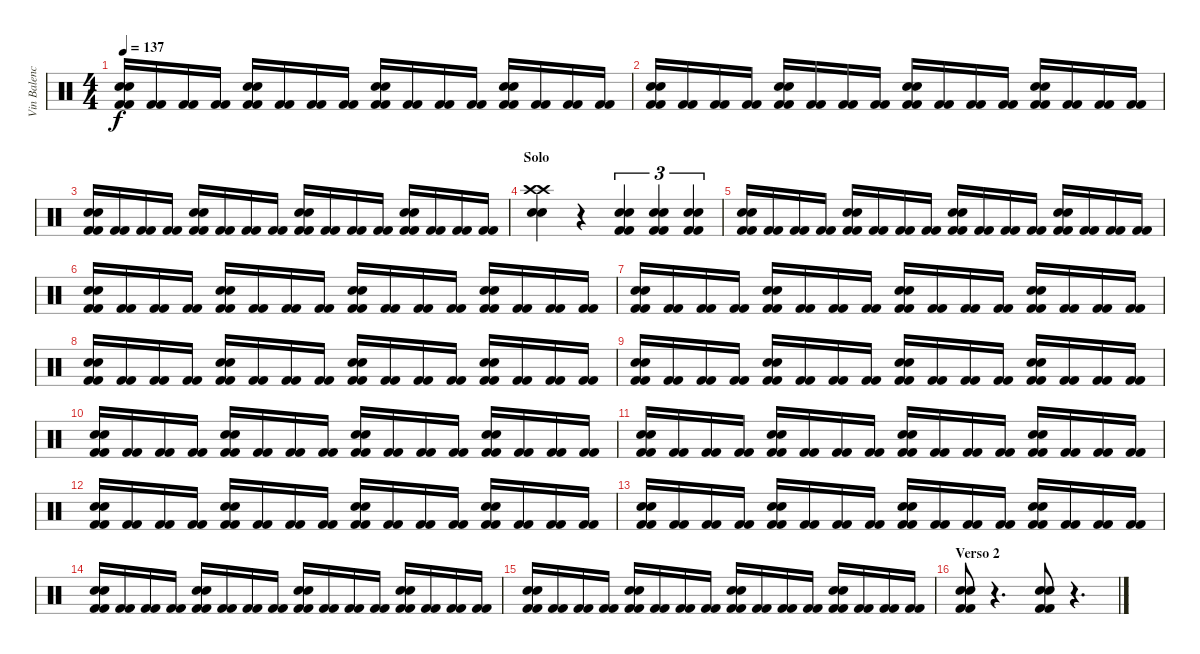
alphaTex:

\track ("Vin Balencia (bateria)" "Vin Balenc") {instrument percussion}
\staff {score}
\articulation defaults
\ts (4 4)
\tempo 137
\clef neutral
\ks c
("Electric Snare (hit)" "Electric Snare (hit)" "Kick (hit) 2" "Kick (hit) 2").16{dy f} ("Kick (hit) 2" "Kick (hit) 2").16 ("Kick (hit) 2" "Kick (hit) 2").16 ("Kick (hit) 2" "Kick (hit) 2").16 ("Electric Snare (hit)" "Electric Snare (hit)" "Kick (hit) 2" "Kick (hit) 2").16 ("Kick (hit) 2" "Kick (hit) 2").16 ("Kick (hit) 2" "Kick (hit) 2").16 ("Kick (hit) 2" "Kick (hit) 2").16 ("Electric Snare (hit)" "Electric Snare (hit)" "Kick (hit) 2" "Kick (hit) 2").16 ("Kick (hit) 2" "Kick (hit) 2").16 ("Kick (hit) 2" "Kick (hit) 2").16 ("Kick (hit) 2" "Kick (hit) 2").16 ("Electric Snare (hit)" "Electric Snare (hit)" "Kick (hit) 2" "Kick (hit) 2").16 ("Kick (hit) 2" "Kick (hit) 2").16 ("Kick (hit) 2" "Kick (hit) 2").16 ("Kick (hit) 2" "Kick (hit) 2").16 |
("Electric Snare (hit)" "Electric Snare (hit)" "Kick (hit) 2" "Kick (hit) 2").16 ("Kick (hit) 2" "Kick (hit) 2").16 ("Kick (hit) 2" "Kick (hit) 2").16 ("Kick (hit) 2" "Kick (hit) 2").16 ("Electric Snare (hit)" "Electric Snare (hit)" "Kick (hit) 2" "Kick (hit) 2").16 ("Kick (hit) 2" "Kick (hit) 2").16 ("Kick (hit) 2" "Kick (hit) 2").16 ("Kick (hit) 2" "Kick (hit) 2").16 ("Electric Snare (hit)" "Electric Snare (hit)" "Kick (hit) 2" "Kick (hit) 2").16 ("Kick (hit) 2" "Kick (hit) 2").16 ("Kick (hit) 2" "Kick (hit) 2").16 ("Kick (hit) 2" "Kick (hit) 2").16 ("Electric Snare (hit)" "Electric Snare (hit)" "Kick (hit) 2" "Kick (hit) 2").16 ("Kick (hit) 2" "Kick (hit) 2").16 ("Kick (hit) 2" "Kick (hit) 2").16 ("Kick (hit) 2" "Kick (hit) 2").16 |
("Electric Snare (hit)" "Electric Snare (hit)" "Kick (hit) 2" "Kick (hit) 2").16 ("Kick (hit) 2" "Kick (hit) 2").16 ("Kick (hit) 2" "Kick (hit) 2").16 ("Kick (hit) 2" "Kick (hit) 2").16 ("Electric Snare (hit)" "Electric Snare (hit)" "Kick (hit) 2" "Kick (hit) 2").16 ("Kick (hit) 2" "Kick (hit) 2").16 ("Kick (hit) 2" "Kick (hit) 2").16 ("Kick (hit) 2" "Kick (hit) 2").16 ("Electric Snare (hit)" "Electric Snare (hit)" "Kick (hit) 2" "Kick (hit) 2").16 ("Kick (hit) 2" "Kick (hit) 2").16 ("Kick (hit) 2" "Kick (hit) 2").16 ("Kick (hit) 2" "Kick (hit) 2").16 ("Electric Snare (hit)" "Electric Snare (hit)" "Kick (hit) 2" "Kick (hit) 2").16 ("Kick (hit) 2" "Kick (hit) 2").16 ("Kick (hit) 2" "Kick (hit) 2").16 ("Kick (hit) 2" "Kick (hit) 2").16 |
\section ("" "Solo")
("Crash high (hit)" "Crash high (hit)" "Snare (hit) 2" "Snare (hit) 2").4 r.4 ("Electric Snare (hit)" "Electric Snare (hit)" "Kick (hit) 2" "Kick (hit) 2").4{tu (3 2)} ("Electric Snare (hit)" "Electric Snare (hit)" "Kick (hit) 2" "Kick (hit) 2").4{tu (3 2)} ("Electric Snare (hit)" "Electric Snare (hit)" "Kick (hit) 2" "Kick (hit) 2").4{tu (3 2)} |
("Electric Snare (hit)" "Electric Snare (hit)" "Kick (hit) 2" "Kick (hit) 2").16 ("Kick (hit) 2" "Kick (hit) 2").16 ("Kick (hit) 2" "Kick (hit) 2").16 ("Kick (hit) 2" "Kick (hit) 2").16 ("Electric Snare (hit)" "Electric Snare (hit)" "Kick (hit) 2" "Kick (hit) 2").16 ("Kick (hit) 2" "Kick (hit) 2").16 ("Kick (hit) 2" "Kick (hit) 2").16 ("Kick (hit) 2" "Kick (hit) 2").16 ("Electric Snare (hit)" "Electric Snare (hit)" "Kick (hit) 2" "Kick (hit) 2").16 ("Kick (hit) 2" "Kick (hit) 2").16 ("Kick (hit) 2" "Kick (hit) 2").16 ("Kick (hit) 2" "Kick (hit) 2").16 ("Electric Snare (hit)" "Electric Snare (hit)" "Kick (hit) 2" "Kick (hit) 2").16 ("Kick (hit) 2" "Kick (hit) 2").16 ("Kick (hit) 2" "Kick (hit) 2").16 ("Kick (hit) 2" "Kick (hit) 2").16 |
("Electric Snare (hit)" "Electric Snare (hit)" "Kick (hit) 2" "Kick (hit) 2").16 ("Kick (hit) 2" "Kick (hit) 2").16 ("Kick (hit) 2" "Kick (hit) 2").16 ("Kick (hit) 2" "Kick (hit) 2").16 ("Electric Snare (hit)" "Electric Snare (hit)" "Kick (hit) 2" "Kick (hit) 2").16 ("Kick (hit) 2" "Kick (hit) 2").16 ("Kick (hit) 2" "Kick (hit) 2").16 ("Kick (hit) 2" "Kick (hit) 2").16 ("Electric Snare (hit)" "Electric Snare (hit)" "Kick (hit) 2" "Kick (hit) 2").16 ("Kick (hit) 2" "Kick (hit) 2").16 ("Kick (hit) 2" "Kick (hit) 2").16 ("Kick (hit) 2" "Kick (hit) 2").16 ("Electric Snare (hit)" "Electric Snare (hit)" "Kick (hit) 2" "Kick (hit) 2").16 ("Kick (hit) 2" "Kick (hit) 2").16 ("Kick (hit) 2" "Kick (hit) 2").16 ("Kick (hit) 2" "Kick (hit) 2").16 |
("Electric Snare (hit)" "Electric Snare (hit)" "Kick (hit) 2" "Kick (hit) 2").16 ("Kick (hit) 2" "Kick (hit) 2").16 ("Kick (hit) 2" "Kick (hit) 2").16 ("Kick (hit) 2" "Kick (hit) 2").16 ("Electric Snare (hit)" "Electric Snare (hit)" "Kick (hit) 2" "Kick (hit) 2").16 ("Kick (hit) 2" "Kick (hit) 2").16 ("Kick (hit) 2" "Kick (hit) 2").16 ("Kick (hit) 2" "Kick (hit) 2").16 ("Electric Snare (hit)" "Electric Snare (hit)" "Kick (hit) 2" "Kick (hit) 2").16 ("Kick (hit) 2" "Kick (hit) 2").16 ("Kick (hit) 2" "Kick (hit) 2").16 ("Kick (hit) 2" "Kick (hit) 2").16 ("Electric Snare (hit)" "Electric Snare (hit)" "Kick (hit) 2" "Kick (hit) 2").16 ("Kick (hit) 2" "Kick (hit) 2").16 ("Kick (hit) 2" "Kick (hit) 2").16 ("Kick (hit) 2" "Kick (hit) 2").16 |
("Electric Snare (hit)" "Electric Snare (hit)" "Kick (hit) 2" "Kick (hit) 2").16 ("Kick (hit) 2" "Kick (hit) 2").16 ("Kick (hit) 2" "Kick (hit) 2").16 ("Kick (hit) 2" "Kick (hit) 2").16 ("Electric Snare (hit)" "Electric Snare (hit)" "Kick (hit) 2" "Kick (hit) 2").16 ("Kick (hit) 2" "Kick (hit) 2").16 ("Kick (hit) 2" "Kick (hit) 2").16 ("Kick (hit) 2" "Kick (hit) 2").16 ("Electric Snare (hit)" "Electric Snare (hit)" "Kick (hit) 2" "Kick (hit) 2").16 ("Kick (hit) 2" "Kick (hit) 2").16 ("Kick (hit) 2" "Kick (hit) 2").16 ("Kick (hit) 2" "Kick (hit) 2").16 ("Electric Snare (hit)" "Electric Snare (hit)" "Kick (hit) 2" "Kick (hit) 2").16 ("Kick (hit) 2" "Kick (hit) 2").16 ("Kick (hit) 2" "Kick (hit) 2").16 ("Kick (hit) 2" "Kick (hit) 2").16 |
("Electric Snare (hit)" "Electric Snare (hit)" "Kick (hit) 2" "Kick (hit) 2").16 ("Kick (hit) 2" "Kick (hit) 2").16 ("Kick (hit) 2" "Kick (hit) 2").16 ("Kick (hit) 2" "Kick (hit) 2").16 ("Electric Snare (hit)" "Electric Snare (hit)" "Kick (hit) 2" "Kick (hit) 2").16 ("Kick (hit) 2" "Kick (hit) 2").16 ("Kick (hit) 2" "Kick (hit) 2").16 ("Kick (hit) 2" "Kick (hit) 2").16 ("Electric Snare (hit)" "Electric Snare (hit)" "Kick (hit) 2" "Kick (hit) 2").16 ("Kick (hit) 2" "Kick (hit) 2").16 ("Kick (hit) 2" "Kick (hit) 2").16 ("Kick (hit) 2" "Kick (hit) 2").16 ("Electric Snare (hit)" "Electric Snare (hit)" "Kick (hit) 2" "Kick (hit) 2").16 ("Kick (hit) 2" "Kick (hit) 2").16 ("Kick (hit) 2" "Kick (hit) 2").16 ("Kick (hit) 2" "Kick (hit) 2").16 |
("Electric Snare (hit)" "Electric Snare (hit)" "Kick (hit) 2" "Kick (hit) 2").16 ("Kick (hit) 2" "Kick (hit) 2").16 ("Kick (hit) 2" "Kick (hit) 2").16 ("Kick (hit) 2" "Kick (hit) 2").16 ("Electric Snare (hit)" "Electric Snare (hit)" "Kick (hit) 2" "Kick (hit) 2").16 ("Kick (hit) 2" "Kick (hit) 2").16 ("Kick (hit) 2" "Kick (hit) 2").16 ("Kick (hit) 2" "Kick (hit) 2").16 ("Electric Snare (hit)" "Electric Snare (hit)" "Kick (hit) 2" "Kick (hit) 2").16 ("Kick (hit) 2" "Kick (hit) 2").16 ("Kick (hit) 2" "Kick (hit) 2").16 ("Kick (hit) 2" "Kick (hit) 2").16 ("Electric Snare (hit)" "Electric Snare (hit)" "Kick (hit) 2" "Kick (hit) 2").16 ("Kick (hit) 2" "Kick (hit) 2").16 ("Kick (hit) 2" "Kick (hit) 2").16 ("Kick (hit) 2" "Kick (hit) 2").16 |
("Electric Snare (hit)" "Electric Snare (hit)" "Kick (hit) 2" "Kick (hit) 2").16 ("Kick (hit) 2" "Kick (hit) 2").16 ("Kick (hit) 2" "Kick (hit) 2").16 ("Kick (hit) 2" "Kick (hit) 2").16 ("Electric Snare (hit)" "Electric Snare (hit)" "Kick (hit) 2" "Kick (hit) 2").16 ("Kick (hit) 2" "Kick (hit) 2").16 ("Kick (hit) 2" "Kick (hit) 2").16 ("Kick (hit) 2" "Kick (hit) 2").16 ("Electric Snare (hit)" "Electric Snare (hit)" "Kick (hit) 2" "Kick (hit) 2").16 ("Kick (hit) 2" "Kick (hit) 2").16 ("Kick (hit) 2" "Kick (hit) 2").16 ("Kick (hit) 2" "Kick (hit) 2").16 ("Electric Snare (hit)" "Electric Snare (hit)" "Kick (hit) 2" "Kick (hit) 2").16 ("Kick (hit) 2" "Kick (hit) 2").16 ("Kick (hit) 2" "Kick (hit) 2").16 ("Kick (hit) 2" "Kick (hit) 2").16 |
("Electric Snare (hit)" "Electric Snare (hit)" "Kick (hit) 2" "Kick (hit) 2").16 ("Kick (hit) 2" "Kick (hit) 2").16 ("Kick (hit) 2" "Kick (hit) 2").16 ("Kick (hit) 2" "Kick (hit) 2").16 ("Electric Snare (hit)" "Electric Snare (hit)" "Kick (hit) 2" "Kick (hit) 2").16 ("Kick (hit) 2" "Kick (hit) 2").16 ("Kick (hit) 2" "Kick (hit) 2").16 ("Kick (hit) 2" "Kick (hit) 2").16 ("Electric Snare (hit)" "Electric Snare (hit)" "Kick (hit) 2" "Kick (hit) 2").16 ("Kick (hit) 2" "Kick (hit) 2").16 ("Kick (hit) 2" "Kick (hit) 2").16 ("Kick (hit) 2" "Kick (hit) 2").16 ("Electric Snare (hit)" "Electric Snare (hit)" "Kick (hit) 2" "Kick (hit) 2").16 ("Kick (hit) 2" "Kick (hit) 2").16 ("Kick (hit) 2" "Kick (hit) 2").16 ("Kick (hit) 2" "Kick (hit) 2").16 |
("Electric Snare (hit)" "Electric Snare (hit)" "Kick (hit) 2" "Kick (hit) 2").16 ("Kick (hit) 2" "Kick (hit) 2").16 ("Kick (hit) 2" "Kick (hit) 2").16 ("Kick (hit) 2" "Kick (hit) 2").16 ("Electric Snare (hit)" "Electric Snare (hit)" "Kick (hit) 2" "Kick (hit) 2").16 ("Kick (hit) 2" "Kick (hit) 2").16 ("Kick (hit) 2" "Kick (hit) 2").16 ("Kick (hit) 2" "Kick (hit) 2").16 ("Electric Snare (hit)" "Electric Snare (hit)" "Kick (hit) 2" "Kick (hit) 2").16 ("Kick (hit) 2" "Kick (hit) 2").16 ("Kick (hit) 2" "Kick (hit) 2").16 ("Kick (hit) 2" "Kick (hit) 2").16 ("Electric Snare (hit)" "Electric Snare (hit)" "Kick (hit) 2" "Kick (hit) 2").16 ("Kick (hit) 2" "Kick (hit) 2").16 ("Kick (hit) 2" "Kick (hit) 2").16 ("Kick (hit) 2" "Kick (hit) 2").16 |
("Electric Snare (hit)" "Electric Snare (hit)" "Kick (hit) 2" "Kick (hit) 2").16 ("Kick (hit) 2" "Kick (hit) 2").16 ("Kick (hit) 2" "Kick (hit) 2").16 ("Kick (hit) 2" "Kick (hit) 2").16 ("Electric Snare (hit)" "Electric Snare (hit)" "Kick (hit) 2" "Kick (hit) 2").16 ("Kick (hit) 2" "Kick (hit) 2").16 ("Kick (hit) 2" "Kick (hit) 2").16 ("Kick (hit) 2" "Kick (hit) 2").16 ("Electric Snare (hit)" "Electric Snare (hit)" "Kick (hit) 2" "Kick (hit) 2").16 ("Kick (hit) 2" "Kick (hit) 2").16 ("Kick (hit) 2" "Kick (hit) 2").16 ("Kick (hit) 2" "Kick (hit) 2").16 ("Electric Snare (hit)" "Electric Snare (hit)" "Kick (hit) 2" "Kick (hit) 2").16 ("Kick (hit) 2" "Kick (hit) 2").16 ("Kick (hit) 2" "Kick (hit) 2").16 ("Kick (hit) 2" "Kick (hit) 2").16 |
("Electric Snare (hit)" "Electric Snare (hit)" "Kick (hit) 2" "Kick (hit) 2").16 ("Kick (hit) 2" "Kick (hit) 2").16 ("Kick (hit) 2" "Kick (hit) 2").16 ("Kick (hit) 2" "Kick (hit) 2").16 ("Electric Snare (hit)" "Electric Snare (hit)" "Kick (hit) 2" "Kick (hit) 2").16 ("Kick (hit) 2" "Kick (hit) 2").16 ("Kick (hit) 2" "Kick (hit) 2").16 ("Kick (hit) 2" "Kick (hit) 2").16 ("Electric Snare (hit)" "Electric Snare (hit)" "Kick (hit) 2" "Kick (hit) 2").16 ("Kick (hit) 2" "Kick (hit) 2").16 ("Kick (hit) 2" "Kick (hit) 2").16 ("Kick (hit) 2" "Kick (hit) 2").16 ("Electric Snare (hit)" "Electric Snare (hit)" "Kick (hit) 2" "Kick (hit) 2").16 ("Kick (hit) 2" "Kick (hit) 2").16 ("Kick (hit) 2" "Kick (hit) 2").16 ("Kick (hit) 2" "Kick (hit) 2").16 |
\section ("" "Verso 2")
("Electric Snare (hit)" "Electric Snare (hit)" "Kick (hit) 2" "Kick (hit) 2").8 r.4{d} ("Electric Snare (hit)" "Electric Snare (hit)" "Kick (hit) 2" "Kick (hit) 2").8 r.4{d}
